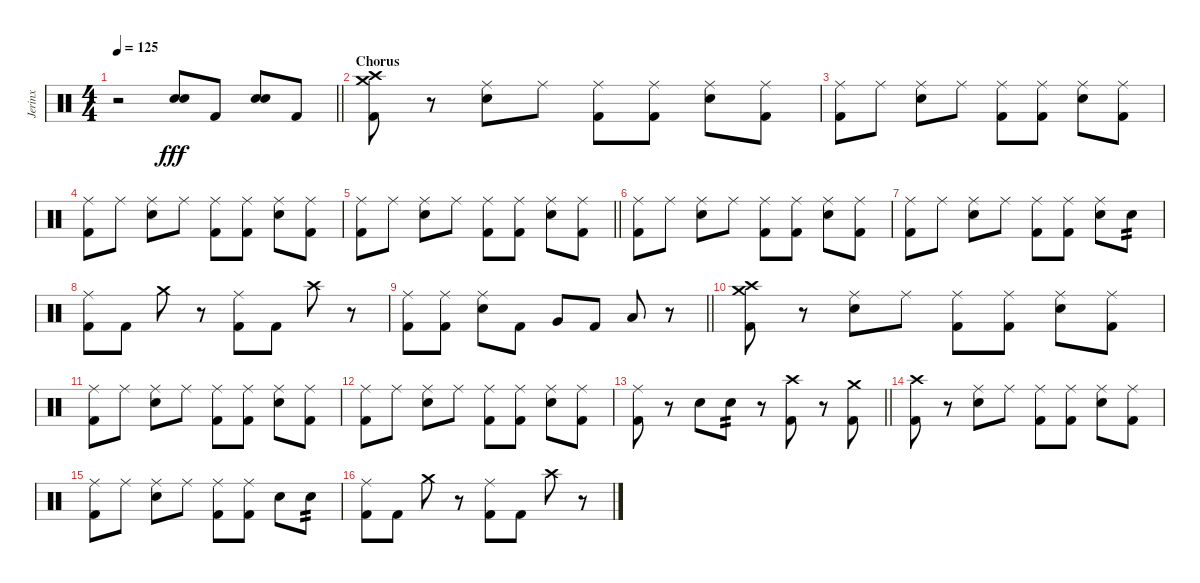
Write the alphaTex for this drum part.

\track ("Jerinx" "Jerinx") {instrument percussion}
\staff {score}
\articulation defaults
\ts (4 4)
\tempo 125
\clef neutral
\barLineRight lightlight
\ks c
r.2{dy fff} ("Snare (hit) 2" "Snare (hit) 2").8{bd 240} "Kick (hit) 2".8 ("Snare (hit) 2" "Snare (hit) 2").8{bd 240} "Kick (hit) 2".8 |
\section ("" "Chorus")
("Kick (hit) 2" "Crash high (hit)" "Crash medium (hit)").8 r.8 ("Snare (hit) 2" "Ride (middle)").8 "Ride (middle)".8 ("Kick (hit) 2" "Ride (middle)").8 ("Kick (hit) 2" "Ride (middle)").8 ("Snare (hit) 2" "Ride (middle)").8 ("Kick (hit) 2" "Ride (middle)").8 |
("Kick (hit) 2" "Ride (middle)").8 "Ride (middle)".8 ("Snare (hit) 2" "Ride (middle)").8 "Ride (middle)".8 ("Kick (hit) 2" "Ride (middle)").8 ("Kick (hit) 2" "Ride (middle)").8 ("Snare (hit) 2" "Ride (middle)").8 ("Kick (hit) 2" "Ride (middle)").8 |
("Kick (hit) 2" "Ride (middle)").8 "Ride (middle)".8 ("Snare (hit) 2" "Ride (middle)").8 "Ride (middle)".8 ("Kick (hit) 2" "Ride (middle)").8 ("Kick (hit) 2" "Ride (middle)").8 ("Snare (hit) 2" "Ride (middle)").8 ("Kick (hit) 2" "Ride (middle)").8 |
\barLineRight lightlight
("Kick (hit) 2" "Ride (middle)").8 "Ride (middle)".8 ("Snare (hit) 2" "Ride (middle)").8 "Ride (middle)".8 ("Kick (hit) 2" "Ride (middle)").8 ("Kick (hit) 2" "Ride (middle)").8 ("Snare (hit) 2" "Ride (middle)").8 ("Kick (hit) 2" "Ride (middle)").8 |
("Kick (hit) 2" "Ride (middle)").8 "Ride (middle)".8 ("Snare (hit) 2" "Ride (middle)").8 "Ride (middle)".8 ("Kick (hit) 2" "Ride (middle)").8 ("Kick (hit) 2" "Ride (middle)").8 ("Snare (hit) 2" "Ride (middle)").8 ("Kick (hit) 2" "Ride (middle)").8 |
("Kick (hit) 2" "Ride (middle)").8 "Ride (middle)".8 ("Snare (hit) 2" "Ride (middle)").8 "Ride (middle)".8 ("Kick (hit) 2" "Ride (middle)").8 ("Kick (hit) 2" "Ride (middle)").8 ("Snare (hit) 2" "Ride (middle)").8 "Snare (hit) 2".8{tp 2} |
("Kick (hit) 2" "Ride (middle)").8 "Kick (hit) 2".8 "Crash medium (hit)".8 r.8 ("Kick (hit) 2" "Ride (middle)").8 "Kick (hit) 2".8 "Crash high (hit)".8 r.8 |
\barLineRight lightlight
("Kick (hit) 2" "Ride (middle)").8 ("Kick (hit) 2" "Ride (middle)").8 ("Snare (hit) 2" "Ride (middle)").8 "Kick (hit) 2".8 "Very Low Tom (hit)".8 "Kick (hit) 2".8 "Low Tom (hit)".8 r.8 |
("Kick (hit) 2" "Crash high (hit)" "Crash medium (hit)").8 r.8 ("Snare (hit) 2" "Ride (middle)").8 "Ride (middle)".8 ("Kick (hit) 2" "Ride (middle)").8 ("Kick (hit) 2" "Ride (middle)").8 ("Snare (hit) 2" "Ride (middle)").8 ("Kick (hit) 2" "Ride (middle)").8 |
("Kick (hit) 2" "Ride (middle)").8 "Ride (middle)".8 ("Snare (hit) 2" "Ride (middle)").8 "Ride (middle)".8 ("Kick (hit) 2" "Ride (middle)").8 ("Kick (hit) 2" "Ride (middle)").8 ("Snare (hit) 2" "Ride (middle)").8 ("Kick (hit) 2" "Ride (middle)").8 |
("Kick (hit) 2" "Ride (middle)").8 "Ride (middle)".8 ("Snare (hit) 2" "Ride (middle)").8 "Ride (middle)".8 ("Kick (hit) 2" "Ride (middle)").8 ("Kick (hit) 2" "Ride (middle)").8 ("Snare (hit) 2" "Ride (middle)").8 ("Kick (hit) 2" "Ride (middle)").8 |
\barLineRight lightlight
("Kick (hit) 2" "Ride (middle)").8 r.8 "Snare (hit) 2".8 "Snare (hit) 2".8{tp 2} r.8 ("Kick (hit) 2" "Crash high (hit)").8 r.8 ("Kick (hit) 2" "Crash medium (hit)").8 |
("Kick (hit) 2" "Crash high (hit)").8 r.8 ("Snare (hit) 2" "Ride (middle)").8 "Ride (middle)".8 ("Kick (hit) 2" "Ride (middle)").8 ("Kick (hit) 2" "Ride (middle)").8 ("Snare (hit) 2" "Ride (middle)").8 ("Kick (hit) 2" "Ride (middle)").8 |
("Kick (hit) 2" "Ride (middle)").8 "Ride (middle)".8 ("Snare (hit) 2" "Ride (middle)").8 "Ride (middle)".8 ("Kick (hit) 2" "Ride (middle)").8 ("Kick (hit) 2" "Ride (middle)").8 "Snare (hit) 2".8 "Snare (hit) 2".8{tp 2} |
("Kick (hit) 2" "Ride (middle)").8 "Kick (hit) 2".8 "Crash medium (hit)".8 r.8 ("Kick (hit) 2" "Ride (middle)").8 "Kick (hit) 2".8 "Crash high (hit)".8 r.8
